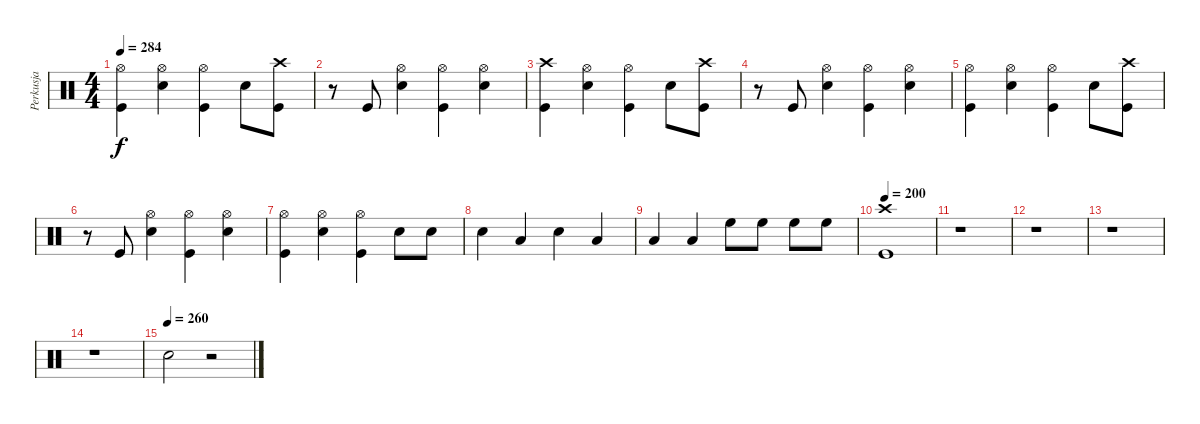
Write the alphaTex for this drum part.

\track ("Perkusja" "Perkusja") {instrument percussion}
\staff {score}
\articulation defaults
\ts (4 4)
\tempo 284
\clef neutral
\ks c
("Hi-Hat (open)" "Kick (hit)").4{dy f} ("Hi-Hat (open)" "Snare (hit) 2").4 ("Hi-Hat (open)" "Kick (hit)").4 "Snare (hit) 2".8 ("Kick (hit)" "Crash high (hit)").8 |
r.8 "Kick (hit)".8 ("Hi-Hat (open)" "Snare (hit) 2").4 ("Hi-Hat (open)" "Kick (hit)").4 ("Hi-Hat (open)" "Snare (hit) 2").4 |
("Kick (hit)" "Crash high (hit)").4 ("Hi-Hat (open)" "Snare (hit) 2").4 ("Hi-Hat (open)" "Kick (hit)").4 "Snare (hit) 2".8 ("Kick (hit)" "Crash high (hit)").8 |
r.8 "Kick (hit)".8 ("Hi-Hat (open)" "Snare (hit) 2").4 ("Hi-Hat (open)" "Kick (hit)").4 ("Hi-Hat (open)" "Snare (hit) 2").4 |
("Hi-Hat (open)" "Kick (hit)").4 ("Hi-Hat (open)" "Snare (hit) 2").4 ("Hi-Hat (open)" "Kick (hit)").4 "Snare (hit) 2".8 ("Kick (hit)" "Crash high (hit)").8 |
r.8 "Kick (hit)".8 ("Hi-Hat (open)" "Snare (hit) 2").4 ("Hi-Hat (open)" "Kick (hit)").4 ("Hi-Hat (open)" "Snare (hit) 2").4 |
("Hi-Hat (open)" "Kick (hit)").4 ("Hi-Hat (open)" "Snare (hit) 2").4 ("Hi-Hat (open)" "Kick (hit)").4 "Snare (hit) 2".8 "Snare (hit) 2".8 |
"Snare (hit) 2".4 "Low Tom (hit)".4 "Snare (hit) 2".4 "Low Tom (hit)".4 |
"Low Tom (hit)".4 "Low Tom (hit)".4 "High Floor Tom (hit)".8 "High Floor Tom (hit)".8 "High Floor Tom (hit)".8 "High Floor Tom (hit)".8 |
\tempo 200
("Kick (hit)" "Crash high (hit)").1 |
r.1 |
r.1 |
r.1 |
r.1 |
\tempo (260)
"Snare (hit) 2".2 r.2
